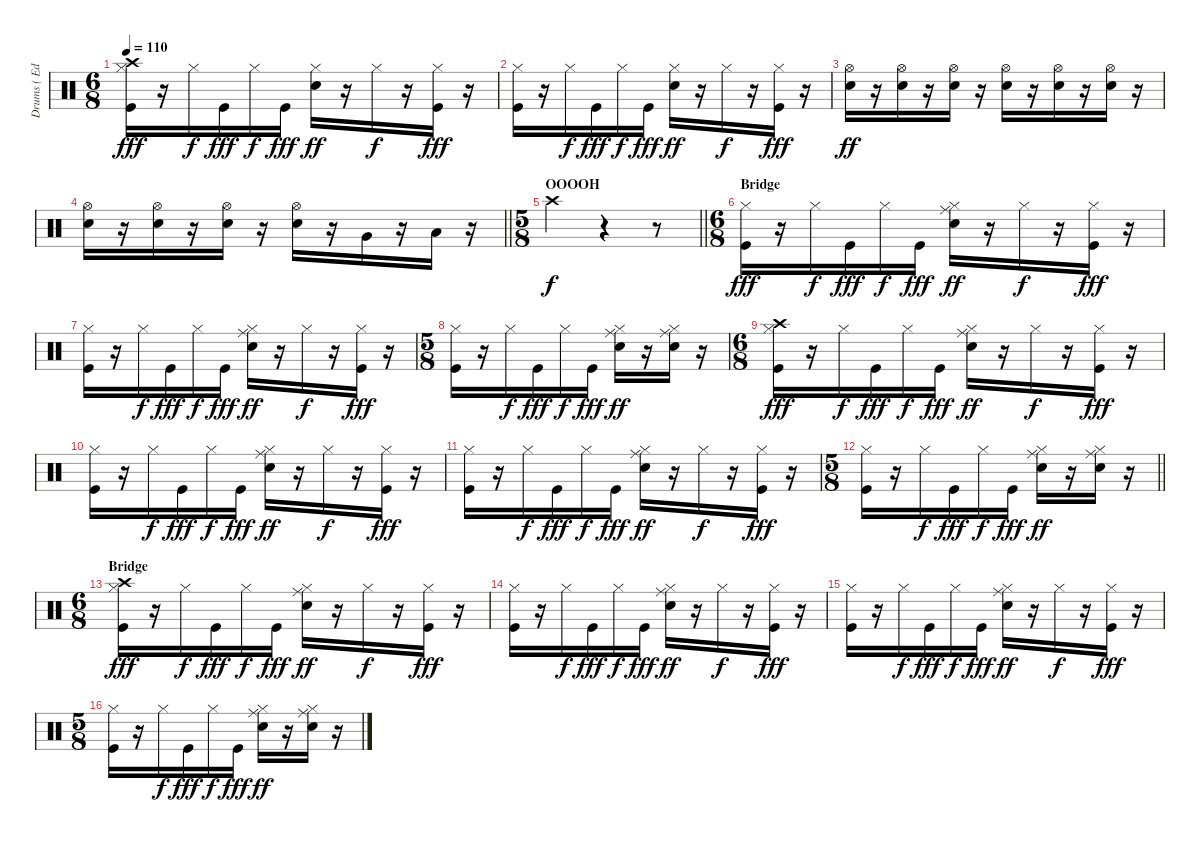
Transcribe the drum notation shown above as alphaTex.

\track ("Drums ( Edward O'Brien )" "Drums ( Ed") {instrument percussion}
\staff {score}
\articulation defaults
\ts (6 8)
\tempo 110
\clef neutral
\ks c
("Crash high (hit)" "Hi-Hat (closed)" "Kick (hit)").16{dy fff} r.16 "Hi-Hat (closed)".16{dy f} "Kick (hit)".16{dy fff} "Hi-Hat (closed)".16{dy f} "Kick (hit)".16{dy fff} ("Hi-Hat (closed)" "Electric Snare (hit)").16{dy ff} r.16 "Hi-Hat (closed)".16{dy f} r.16 ("Hi-Hat (closed)" "Kick (hit)").16{dy fff} r.16 |
("Hi-Hat (closed)" "Kick (hit)").16 r.16 "Hi-Hat (closed)".16{dy f} "Kick (hit)".16{dy fff} "Hi-Hat (closed)".16{dy f} "Kick (hit)".16{dy fff} ("Hi-Hat (closed)" "Electric Snare (hit)").16{dy ff} r.16 "Hi-Hat (closed)".16{dy f} r.16 ("Hi-Hat (closed)" "Kick (hit)").16{dy fff} r.16 |
("Hi-Hat (open)" "Electric Snare (hit)").16{dy ff} r.16 ("Hi-Hat (open)" "Electric Snare (hit)").16 r.16 ("Hi-Hat (open)" "Electric Snare (hit)").16 r.16 ("Hi-Hat (open)" "Electric Snare (hit)").16 r.16 ("Hi-Hat (open)" "Electric Snare (hit)").16 r.16 ("Hi-Hat (open)" "Electric Snare (hit)").16 r.16 |
\barLineRight lightlight
("Hi-Hat (open)" "Electric Snare (hit)").16 r.16 ("Hi-Hat (open)" "Electric Snare (hit)").16 r.16 ("Hi-Hat (open)" "Electric Snare (hit)").16 r.16 ("Hi-Hat (open)" "Electric Snare (hit)").16 r.16 "Very Low Tom (hit)".16 r.16 "Low Floor Tom (hit)".16 r.16 |
\ts (5 8)
\section ("" "OOOOH")
\barLineRight lightlight "Crash high (hit)".4{dy f}
r.4 r.8 |
\ts (6 8)
\section ("" "Bridge")
("Hi-Hat (closed)" "Kick (hit)").16{dy fff} r.16 "Hi-Hat (closed)".16{dy f} "Kick (hit)".16{dy fff} "Hi-Hat (closed)".16{dy f} "Kick (hit)".16{dy fff} ("Ride (middle)" "Hi-Hat (closed)" "Electric Snare (hit)").16{dy ff} r.16 "Hi-Hat (closed)".16{dy f} r.16 ("Hi-Hat (closed)" "Kick (hit)").16{dy fff} r.16 |
("Hi-Hat (closed)" "Kick (hit)").16 r.16 "Hi-Hat (closed)".16{dy f} "Kick (hit)".16{dy fff} "Hi-Hat (closed)".16{dy f} "Kick (hit)".16{dy fff} ("Ride (middle)" "Hi-Hat (closed)" "Electric Snare (hit)").16{dy ff} r.16 "Hi-Hat (closed)".16{dy f} r.16 ("Hi-Hat (closed)" "Kick (hit)").16{dy fff} r.16 |
\ts (5 8)
("Hi-Hat (closed)" "Kick (hit)").16 r.16 "Hi-Hat (closed)".16{dy f} "Kick (hit)".16{dy fff} "Hi-Hat (closed)".16{dy f} "Kick (hit)".16{dy fff} ("Ride (middle)" "Hi-Hat (closed)" "Electric Snare (hit)").16{dy ff} r.16 ("Ride (middle)" "Hi-Hat (closed)" "Electric Snare (hit)").16 r.16 |
\ts (6 8)
("Crash high (hit)" "Hi-Hat (closed)" "Kick (hit)").16{dy fff} r.16 "Hi-Hat (closed)".16{dy f} "Kick (hit)".16{dy fff} "Hi-Hat (closed)".16{dy f} "Kick (hit)".16{dy fff} ("Ride (middle)" "Hi-Hat (closed)" "Electric Snare (hit)").16{dy ff} r.16 "Hi-Hat (closed)".16{dy f} r.16 ("Hi-Hat (closed)" "Kick (hit)").16{dy fff} r.16 |
("Hi-Hat (closed)" "Kick (hit)").16 r.16 "Hi-Hat (closed)".16{dy f} "Kick (hit)".16{dy fff} "Hi-Hat (closed)".16{dy f} "Kick (hit)".16{dy fff} ("Ride (middle)" "Hi-Hat (closed)" "Electric Snare (hit)").16{dy ff} r.16 "Hi-Hat (closed)".16{dy f} r.16 ("Hi-Hat (closed)" "Kick (hit)").16{dy fff} r.16 |
("Hi-Hat (closed)" "Kick (hit)").16 r.16 "Hi-Hat (closed)".16{dy f} "Kick (hit)".16{dy fff} "Hi-Hat (closed)".16{dy f} "Kick (hit)".16{dy fff} ("Ride (middle)" "Hi-Hat (closed)" "Electric Snare (hit)").16{dy ff} r.16 "Hi-Hat (closed)".16{dy f} r.16 ("Hi-Hat (closed)" "Kick (hit)").16{dy fff} r.16 |
\ts (5 8)
\barLineRight lightlight
("Hi-Hat (closed)" "Kick (hit)").16 r.16 "Hi-Hat (closed)".16{dy f} "Kick (hit)".16{dy fff} "Hi-Hat (closed)".16{dy f} "Kick (hit)".16{dy fff} ("Ride (middle)" "Hi-Hat (closed)" "Electric Snare (hit)").16{dy ff} r.16 ("Ride (middle)" "Hi-Hat (closed)" "Electric Snare (hit)").16 r.16 |
\ts (6 8)
\section ("" "Bridge")
("Crash high (hit)" "Hi-Hat (closed)" "Kick (hit)").16{dy fff} r.16 "Hi-Hat (closed)".16{dy f} "Kick (hit)".16{dy fff} "Hi-Hat (closed)".16{dy f} "Kick (hit)".16{dy fff} ("Ride (middle)" "Hi-Hat (closed)" "Electric Snare (hit)").16{dy ff} r.16 "Hi-Hat (closed)".16{dy f} r.16 ("Hi-Hat (closed)" "Kick (hit)").16{dy fff} r.16 |
("Hi-Hat (closed)" "Kick (hit)").16 r.16 "Hi-Hat (closed)".16{dy f} "Kick (hit)".16{dy fff} "Hi-Hat (closed)".16{dy f} "Kick (hit)".16{dy fff} ("Ride (middle)" "Hi-Hat (closed)" "Electric Snare (hit)").16{dy ff} r.16 "Hi-Hat (closed)".16{dy f} r.16 ("Hi-Hat (closed)" "Kick (hit)").16{dy fff} r.16 |
("Hi-Hat (closed)" "Kick (hit)").16 r.16 "Hi-Hat (closed)".16{dy f} "Kick (hit)".16{dy fff} "Hi-Hat (closed)".16{dy f} "Kick (hit)".16{dy fff} ("Ride (middle)" "Hi-Hat (closed)" "Electric Snare (hit)").16{dy ff} r.16 "Hi-Hat (closed)".16{dy f} r.16 ("Hi-Hat (closed)" "Kick (hit)").16{dy fff} r.16 |
\ts (5 8)
("Hi-Hat (closed)" "Kick (hit)").16 r.16 "Hi-Hat (closed)".16{dy f} "Kick (hit)".16{dy fff} "Hi-Hat (closed)".16{dy f} "Kick (hit)".16{dy fff} ("Ride (middle)" "Hi-Hat (closed)" "Electric Snare (hit)").16{dy ff} r.16 ("Ride (middle)" "Hi-Hat (closed)" "Electric Snare (hit)").16 r.16
